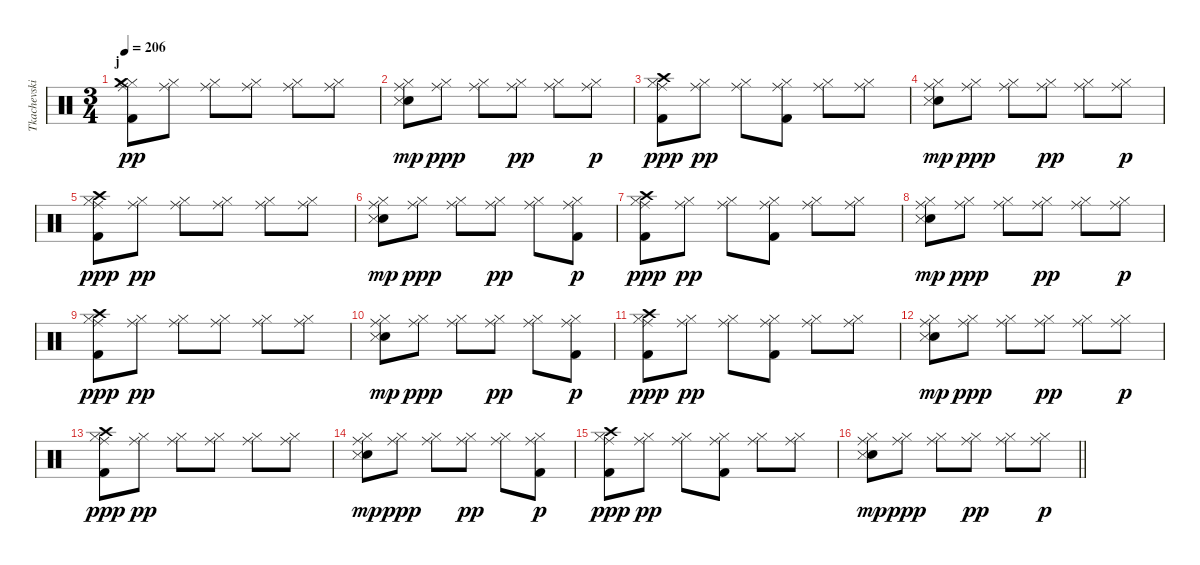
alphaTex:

\track ("Tkachevskiy A" "Tkachevski") {instrument percussion}
\staff {score}
\articulation defaults
\ts (3 4)
\section ("" "j")
\tempo 206
\clef neutral
\ks c
("Ride (middle)" "Hi-Hat (closed)" "Crash medium (hit)" "Kick (hit) 2").8{dy pp} ("Ride (middle)" "Hi-Hat (closed)").8 ("Ride (middle)" "Hi-Hat (closed)").8 ("Ride (middle)" "Hi-Hat (closed)").8 ("Ride (middle)" "Hi-Hat (closed)").8 ("Ride (middle)" "Hi-Hat (closed)").8 |
("Ride (middle)" "Hi-Hat (closed)" "Snare (hit) 2" "Snare (side stick) 3").8{dy mp} ("Ride (middle)" "Hi-Hat (closed)").8{dy ppp} ("Ride (middle)" "Hi-Hat (closed)").8 ("Ride (middle)" "Hi-Hat (closed)").8{dy pp} ("Ride (middle)" "Hi-Hat (closed)").8 ("Ride (middle)" "Hi-Hat (closed)").8{dy p} |
("Ride (middle)" "Hi-Hat (closed)" "Crash high (hit)" "Kick (hit) 2").8{dy ppp} ("Ride (middle)" "Hi-Hat (closed)").8{dy pp} ("Ride (middle)" "Hi-Hat (closed)").8 ("Ride (middle)" "Hi-Hat (closed)" "Kick (hit) 2").8 ("Ride (middle)" "Hi-Hat (closed)").8 ("Ride (middle)" "Hi-Hat (closed)").8 |
("Ride (middle)" "Hi-Hat (closed)" "Snare (hit) 2" "Snare (side stick) 3").8{dy mp} ("Ride (middle)" "Hi-Hat (closed)").8{dy ppp} ("Ride (middle)" "Hi-Hat (closed)").8 ("Ride (middle)" "Hi-Hat (closed)").8{dy pp} ("Ride (middle)" "Hi-Hat (closed)").8 ("Ride (middle)" "Hi-Hat (closed)").8{dy p} |
("Ride (middle)" "Hi-Hat (closed)" "Crash high (hit)" "Kick (hit) 2").8{dy ppp} ("Ride (middle)" "Hi-Hat (closed)").8{dy pp} ("Ride (middle)" "Hi-Hat (closed)").8 ("Ride (middle)" "Hi-Hat (closed)").8 ("Ride (middle)" "Hi-Hat (closed)").8 ("Ride (middle)" "Hi-Hat (closed)").8 |
("Ride (middle)" "Hi-Hat (closed)" "Snare (hit) 2" "Snare (side stick) 3").8{dy mp} ("Ride (middle)" "Hi-Hat (closed)").8{dy ppp} ("Ride (middle)" "Hi-Hat (closed)").8 ("Ride (middle)" "Hi-Hat (closed)").8{dy pp} ("Ride (middle)" "Hi-Hat (closed)").8 ("Ride (middle)" "Hi-Hat (closed)" "Kick (hit) 2").8{dy p} |
("Ride (middle)" "Hi-Hat (closed)" "Crash high (hit)" "Kick (hit) 2").8{dy ppp} ("Ride (middle)" "Hi-Hat (closed)").8{dy pp} ("Ride (middle)" "Hi-Hat (closed)").8 ("Ride (middle)" "Hi-Hat (closed)" "Kick (hit) 2").8 ("Ride (middle)" "Hi-Hat (closed)").8 ("Ride (middle)" "Hi-Hat (closed)").8 |
("Ride (middle)" "Hi-Hat (closed)" "Snare (hit) 2" "Snare (side stick) 3").8{dy mp} ("Ride (middle)" "Hi-Hat (closed)").8{dy ppp} ("Ride (middle)" "Hi-Hat (closed)").8 ("Ride (middle)" "Hi-Hat (closed)").8{dy pp} ("Ride (middle)" "Hi-Hat (closed)").8 ("Ride (middle)" "Hi-Hat (closed)").8{dy p} |
("Ride (middle)" "Hi-Hat (closed)" "Crash high (hit)" "Kick (hit) 2").8{dy ppp} ("Ride (middle)" "Hi-Hat (closed)").8{dy pp} ("Ride (middle)" "Hi-Hat (closed)").8 ("Ride (middle)" "Hi-Hat (closed)").8 ("Ride (middle)" "Hi-Hat (closed)").8 ("Ride (middle)" "Hi-Hat (closed)").8 |
("Ride (middle)" "Hi-Hat (closed)" "Snare (hit) 2" "Snare (side stick) 3").8{dy mp} ("Ride (middle)" "Hi-Hat (closed)").8{dy ppp} ("Ride (middle)" "Hi-Hat (closed)").8 ("Ride (middle)" "Hi-Hat (closed)").8{dy pp} ("Ride (middle)" "Hi-Hat (closed)").8 ("Ride (middle)" "Hi-Hat (closed)" "Kick (hit) 2").8{dy p} |
("Ride (middle)" "Hi-Hat (closed)" "Crash high (hit)" "Kick (hit) 2").8{dy ppp} ("Ride (middle)" "Hi-Hat (closed)").8{dy pp} ("Ride (middle)" "Hi-Hat (closed)").8 ("Ride (middle)" "Hi-Hat (closed)" "Kick (hit) 2").8 ("Ride (middle)" "Hi-Hat (closed)").8 ("Ride (middle)" "Hi-Hat (closed)").8 |
("Ride (middle)" "Hi-Hat (closed)" "Snare (hit) 2" "Snare (side stick) 3").8{dy mp} ("Ride (middle)" "Hi-Hat (closed)").8{dy ppp} ("Ride (middle)" "Hi-Hat (closed)").8 ("Ride (middle)" "Hi-Hat (closed)").8{dy pp} ("Ride (middle)" "Hi-Hat (closed)").8 ("Ride (middle)" "Hi-Hat (closed)").8{dy p} |
("Ride (middle)" "Hi-Hat (closed)" "Crash high (hit)" "Kick (hit) 2").8{dy ppp} ("Ride (middle)" "Hi-Hat (closed)").8{dy pp} ("Ride (middle)" "Hi-Hat (closed)").8 ("Ride (middle)" "Hi-Hat (closed)").8 ("Ride (middle)" "Hi-Hat (closed)").8 ("Ride (middle)" "Hi-Hat (closed)").8 |
("Ride (middle)" "Hi-Hat (closed)" "Snare (hit) 2" "Snare (side stick) 3").8{dy mp} ("Ride (middle)" "Hi-Hat (closed)").8{dy ppp} ("Ride (middle)" "Hi-Hat (closed)").8 ("Ride (middle)" "Hi-Hat (closed)").8{dy pp} ("Ride (middle)" "Hi-Hat (closed)").8 ("Ride (middle)" "Hi-Hat (closed)" "Kick (hit) 2").8{dy p} |
("Ride (middle)" "Hi-Hat (closed)" "Crash high (hit)" "Kick (hit) 2").8{dy ppp} ("Ride (middle)" "Hi-Hat (closed)").8{dy pp} ("Ride (middle)" "Hi-Hat (closed)").8 ("Ride (middle)" "Hi-Hat (closed)" "Kick (hit) 2").8 ("Ride (middle)" "Hi-Hat (closed)").8 ("Ride (middle)" "Hi-Hat (closed)").8 |
\barLineRight lightlight
("Ride (middle)" "Hi-Hat (closed)" "Snare (hit) 2" "Snare (side stick) 3").8{dy mp} ("Ride (middle)" "Hi-Hat (closed)").8{dy ppp} ("Ride (middle)" "Hi-Hat (closed)").8 ("Ride (middle)" "Hi-Hat (closed)").8{dy pp} ("Ride (middle)" "Hi-Hat (closed)").8 ("Ride (middle)" "Hi-Hat (closed)").8{dy p}
